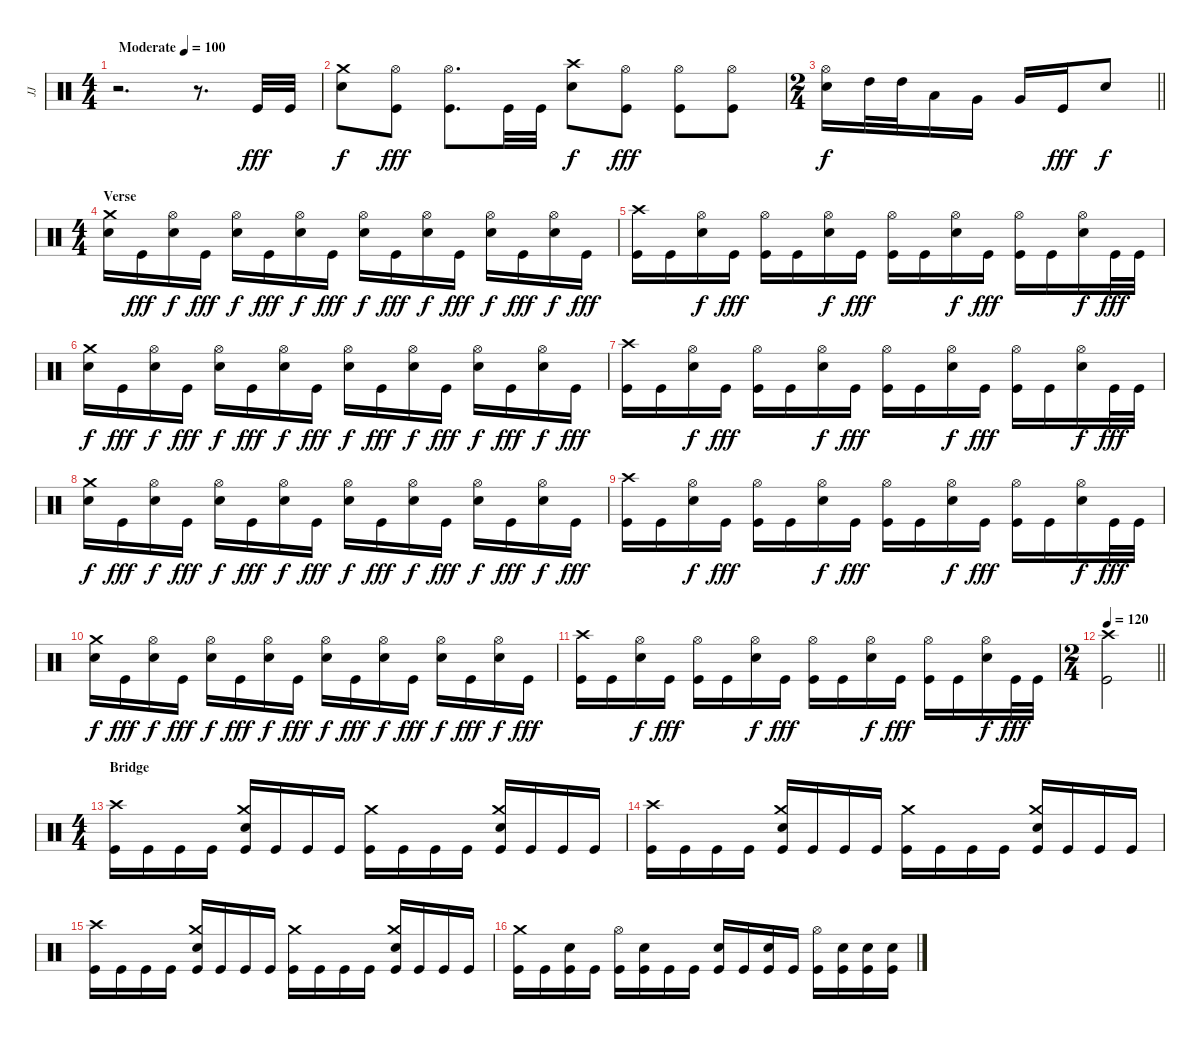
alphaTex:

\track ("JJ" "JJ") {instrument percussion}
\staff {score}
\articulation defaults
\ts (4 4)
\tempo (100 "Moderate")
\clef neutral
\ks c
r.2{d dy fff} r.8{d} "Kick (hit)".32 "Kick (hit)".32 |
("Crash medium (hit)" "Electric Snare (hit)").8{dy f} ("Hi-Hat (open)" "Kick (hit)").8{dy fff} ("Hi-Hat (open)" "Kick (hit)").8{d} "Kick (hit)".32 "Kick (hit)".32 ("Crash high (hit)" "Electric Snare (hit)").8{dy f} ("Hi-Hat (open)" "Kick (hit)").8{dy fff} ("Hi-Hat (open)" "Kick (hit)").8 ("Hi-Hat (open)" "Kick (hit)").8 |
\ts (2 4)
\barLineRight lightlight
("Hi-Hat (open)" "Electric Snare (hit)").16{dy f} "High Tom (hit)".32 "High Tom (hit)".32 "Low Floor Tom (hit)".16 "Very Low Tom (hit)".16 "Very Low Tom (hit)".16 "Kick (hit)".16{dy fff} "Electric Snare (hit)".8{dy f} |
\ts (4 4)
\section ("" "Verse ")
("Crash medium (hit)" "Electric Snare (hit)").16 "Kick (hit)".16{dy fff} ("Hi-Hat (open)" "Electric Snare (hit)").16{dy f} "Kick (hit)".16{dy fff} ("Hi-Hat (open)" "Electric Snare (hit)").16{dy f} "Kick (hit)".16{dy fff} ("Hi-Hat (open)" "Electric Snare (hit)").16{dy f} "Kick (hit)".16{dy fff} ("Hi-Hat (open)" "Electric Snare (hit)").16{dy f} "Kick (hit)".16{dy fff} ("Hi-Hat (open)" "Electric Snare (hit)").16{dy f} "Kick (hit)".16{dy fff} ("Hi-Hat (open)" "Electric Snare (hit)").16{dy f} "Kick (hit)".16{dy fff} ("Hi-Hat (open)" "Electric Snare (hit)").16{dy f} "Kick (hit)".16{dy fff} |
("Crash high (hit)" "Kick (hit)").16 "Kick (hit)".16 ("Hi-Hat (open)" "Electric Snare (hit)").16{dy f} "Kick (hit)".16{dy fff} ("Hi-Hat (open)" "Kick (hit)").16 "Kick (hit)".16 ("Hi-Hat (open)" "Electric Snare (hit)").16{dy f} "Kick (hit)".16{dy fff} ("Hi-Hat (open)" "Kick (hit)").16 "Kick (hit)".16 ("Hi-Hat (open)" "Electric Snare (hit)").16{dy f} "Kick (hit)".16{dy fff} ("Hi-Hat (open)" "Kick (hit)").16 "Kick (hit)".16 ("Hi-Hat (open)" "Electric Snare (hit)").16{dy f} "Kick (hit)".32{dy fff} "Kick (hit)".32 |
("Crash medium (hit)" "Electric Snare (hit)").16{dy f} "Kick (hit)".16{dy fff} ("Hi-Hat (open)" "Electric Snare (hit)").16{dy f} "Kick (hit)".16{dy fff} ("Hi-Hat (open)" "Electric Snare (hit)").16{dy f} "Kick (hit)".16{dy fff} ("Hi-Hat (open)" "Electric Snare (hit)").16{dy f} "Kick (hit)".16{dy fff} ("Hi-Hat (open)" "Electric Snare (hit)").16{dy f} "Kick (hit)".16{dy fff} ("Hi-Hat (open)" "Electric Snare (hit)").16{dy f} "Kick (hit)".16{dy fff} ("Hi-Hat (open)" "Electric Snare (hit)").16{dy f} "Kick (hit)".16{dy fff} ("Hi-Hat (open)" "Electric Snare (hit)").16{dy f} "Kick (hit)".16{dy fff} |
("Crash high (hit)" "Kick (hit)").16 "Kick (hit)".16 ("Hi-Hat (open)" "Electric Snare (hit)").16{dy f} "Kick (hit)".16{dy fff} ("Hi-Hat (open)" "Kick (hit)").16 "Kick (hit)".16 ("Hi-Hat (open)" "Electric Snare (hit)").16{dy f} "Kick (hit)".16{dy fff} ("Hi-Hat (open)" "Kick (hit)").16 "Kick (hit)".16 ("Hi-Hat (open)" "Electric Snare (hit)").16{dy f} "Kick (hit)".16{dy fff} ("Hi-Hat (open)" "Kick (hit)").16 "Kick (hit)".16 ("Hi-Hat (open)" "Electric Snare (hit)").16{dy f} "Kick (hit)".32{dy fff} "Kick (hit)".32 |
("Crash medium (hit)" "Electric Snare (hit)").16{dy f} "Kick (hit)".16{dy fff} ("Hi-Hat (open)" "Electric Snare (hit)").16{dy f} "Kick (hit)".16{dy fff} ("Hi-Hat (open)" "Electric Snare (hit)").16{dy f} "Kick (hit)".16{dy fff} ("Hi-Hat (open)" "Electric Snare (hit)").16{dy f} "Kick (hit)".16{dy fff} ("Hi-Hat (open)" "Electric Snare (hit)").16{dy f} "Kick (hit)".16{dy fff} ("Hi-Hat (open)" "Electric Snare (hit)").16{dy f} "Kick (hit)".16{dy fff} ("Hi-Hat (open)" "Electric Snare (hit)").16{dy f} "Kick (hit)".16{dy fff} ("Hi-Hat (open)" "Electric Snare (hit)").16{dy f} "Kick (hit)".16{dy fff} |
("Crash high (hit)" "Kick (hit)").16 "Kick (hit)".16 ("Hi-Hat (open)" "Electric Snare (hit)").16{dy f} "Kick (hit)".16{dy fff} ("Hi-Hat (open)" "Kick (hit)").16 "Kick (hit)".16 ("Hi-Hat (open)" "Electric Snare (hit)").16{dy f} "Kick (hit)".16{dy fff} ("Hi-Hat (open)" "Kick (hit)").16 "Kick (hit)".16 ("Hi-Hat (open)" "Electric Snare (hit)").16{dy f} "Kick (hit)".16{dy fff} ("Hi-Hat (open)" "Kick (hit)").16 "Kick (hit)".16 ("Hi-Hat (open)" "Electric Snare (hit)").16{dy f} "Kick (hit)".32{dy fff} "Kick (hit)".32 |
("Crash medium (hit)" "Electric Snare (hit)").16{dy f} "Kick (hit)".16{dy fff} ("Hi-Hat (open)" "Electric Snare (hit)").16{dy f} "Kick (hit)".16{dy fff} ("Hi-Hat (open)" "Electric Snare (hit)").16{dy f} "Kick (hit)".16{dy fff} ("Hi-Hat (open)" "Electric Snare (hit)").16{dy f} "Kick (hit)".16{dy fff} ("Hi-Hat (open)" "Electric Snare (hit)").16{dy f} "Kick (hit)".16{dy fff} ("Hi-Hat (open)" "Electric Snare (hit)").16{dy f} "Kick (hit)".16{dy fff} ("Hi-Hat (open)" "Electric Snare (hit)").16{dy f} "Kick (hit)".16{dy fff} ("Hi-Hat (open)" "Electric Snare (hit)").16{dy f} "Kick (hit)".16{dy fff} |
("Crash high (hit)" "Kick (hit)").16 "Kick (hit)".16 ("Hi-Hat (open)" "Electric Snare (hit)").16{dy f} "Kick (hit)".16{dy fff} ("Hi-Hat (open)" "Kick (hit)").16 "Kick (hit)".16 ("Hi-Hat (open)" "Electric Snare (hit)").16{dy f} "Kick (hit)".16{dy fff} ("Hi-Hat (open)" "Kick (hit)").16 "Kick (hit)".16 ("Hi-Hat (open)" "Electric Snare (hit)").16{dy f} "Kick (hit)".16{dy fff} ("Hi-Hat (open)" "Kick (hit)").16 "Kick (hit)".16 ("Hi-Hat (open)" "Electric Snare (hit)").16{dy f} "Kick (hit)".32{dy fff} "Kick (hit)".32 |
\ts (2 4)
\tempo 120
\barLineRight lightlight
("Crash high (hit)" "Kick (hit)").2 |
\ts (4 4)
\section ("" "Bridge")
("Crash high (hit)" "Kick (hit)").16 "Kick (hit)".16 "Kick (hit)".16 "Kick (hit)".16 ("Crash medium (hit)" "Electric Snare (hit)" "Kick (hit)").16 "Kick (hit)".16 "Kick (hit)".16 "Kick (hit)".16 ("Crash medium (hit)" "Kick (hit)").16 "Kick (hit)".16 "Kick (hit)".16 "Kick (hit)".16 ("Crash medium (hit)" "Electric Snare (hit)" "Kick (hit)").16 "Kick (hit)".16 "Kick (hit)".16 "Kick (hit)".16 |
("Crash high (hit)" "Kick (hit)").16 "Kick (hit)".16 "Kick (hit)".16 "Kick (hit)".16 ("Crash medium (hit)" "Electric Snare (hit)" "Kick (hit)").16 "Kick (hit)".16 "Kick (hit)".16 "Kick (hit)".16 ("Crash medium (hit)" "Kick (hit)").16 "Kick (hit)".16 "Kick (hit)".16 "Kick (hit)".16 ("Crash medium (hit)" "Electric Snare (hit)" "Kick (hit)").16 "Kick (hit)".16 "Kick (hit)".16 "Kick (hit)".16 |
("Crash high (hit)" "Kick (hit)").16 "Kick (hit)".16 "Kick (hit)".16 "Kick (hit)".16 ("Crash medium (hit)" "Electric Snare (hit)" "Kick (hit)").16 "Kick (hit)".16 "Kick (hit)".16 "Kick (hit)".16 ("Crash medium (hit)" "Kick (hit)").16 "Kick (hit)".16 "Kick (hit)".16 "Kick (hit)".16 ("Crash medium (hit)" "Electric Snare (hit)" "Kick (hit)").16 "Kick (hit)".16 "Kick (hit)".16 "Kick (hit)".16 |
("Crash medium (hit)" "Kick (hit)").16 "Kick (hit)".16 ("Electric Snare (hit)" "Kick (hit)").16 "Kick (hit)".16 ("Hi-Hat (open)" "Kick (hit)").16 ("Electric Snare (hit)" "Kick (hit)").16 "Kick (hit)".16 "Kick (hit)".16 ("Electric Snare (hit)" "Kick (hit)").16 "Kick (hit)".16 ("Electric Snare (hit)" "Kick (hit)").16 "Kick (hit)".16 ("Hi-Hat (open)" "Kick (hit)").16 ("Electric Snare (hit)" "Kick (hit)").16 ("Electric Snare (hit)" "Kick (hit)").16 ("Electric Snare (hit)" "Kick (hit)").16
